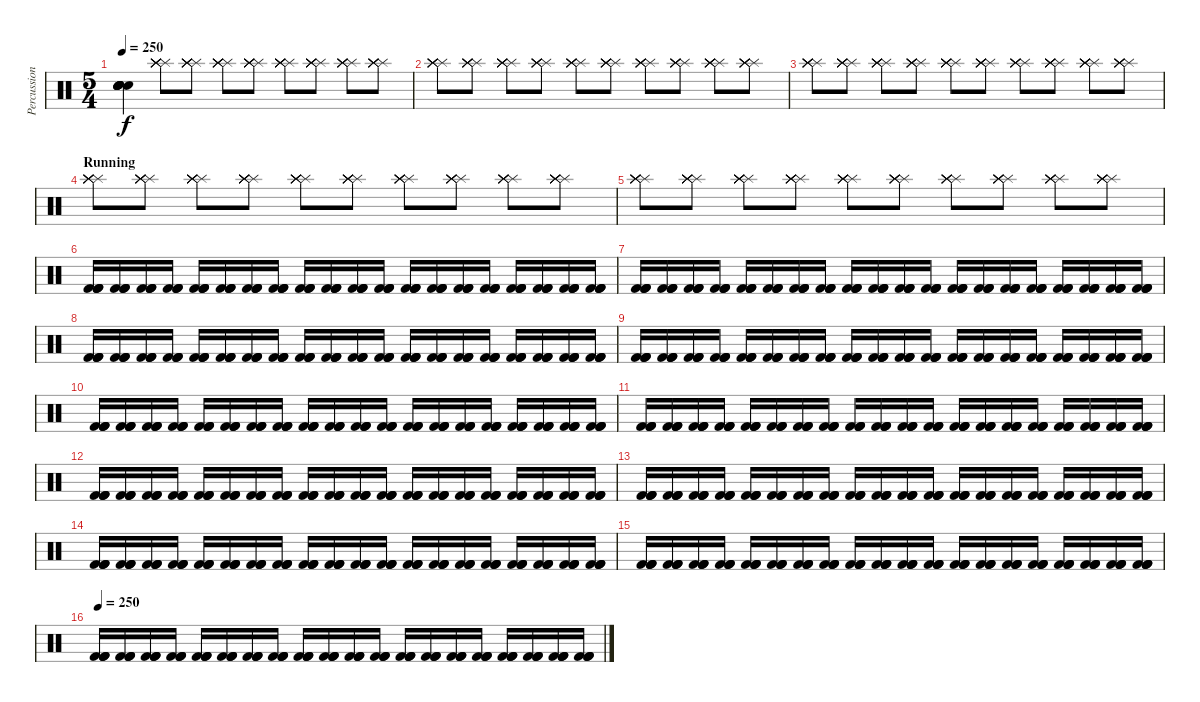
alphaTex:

\track ("Percussion" "Percussion") {instrument percussion}
\staff {score}
\articulation defaults
\ts (5 4)
\tempo 250
\clef neutral
\ks c
("Snare (hit)"{t} "Snare (hit)"{t} "Snare (hit)"{t} "Snare (hit)"{t} "Snare (hit)"{t} "Snare (hit)"{t}).4{dy f} ("Splash (hit)" "Splash (hit)" "Splash (hit)" "Splash (hit)" "Splash (hit)" "Splash (hit)").8 ("Splash (hit)" "Splash (hit)" "Splash (hit)" "Splash (hit)" "Splash (hit)" "Splash (hit)").8 ("Splash (hit)" "Splash (hit)" "Splash (hit)" "Splash (hit)" "Splash (hit)" "Splash (hit)").8 ("Splash (hit)" "Splash (hit)" "Splash (hit)" "Splash (hit)" "Splash (hit)" "Splash (hit)").8 ("Splash (hit)" "Splash (hit)" "Splash (hit)" "Splash (hit)" "Splash (hit)" "Splash (hit)").8 ("Splash (hit)" "Splash (hit)" "Splash (hit)" "Splash (hit)" "Splash (hit)" "Splash (hit)").8 ("Splash (hit)" "Splash (hit)" "Splash (hit)" "Splash (hit)" "Splash (hit)" "Splash (hit)").8 ("Splash (hit)" "Splash (hit)" "Splash (hit)" "Splash (hit)" "Splash (hit)" "Splash (hit)").8 |
("Splash (hit)" "Splash (hit)" "Splash (hit)" "Splash (hit)" "Splash (hit)" "Splash (hit)").8 ("Splash (hit)" "Splash (hit)" "Splash (hit)" "Splash (hit)" "Splash (hit)" "Splash (hit)").8 ("Splash (hit)" "Splash (hit)" "Splash (hit)" "Splash (hit)" "Splash (hit)" "Splash (hit)").8 ("Splash (hit)" "Splash (hit)" "Splash (hit)" "Splash (hit)" "Splash (hit)" "Splash (hit)").8 ("Splash (hit)" "Splash (hit)" "Splash (hit)" "Splash (hit)" "Splash (hit)" "Splash (hit)").8 ("Splash (hit)" "Splash (hit)" "Splash (hit)" "Splash (hit)" "Splash (hit)" "Splash (hit)").8 ("Splash (hit)" "Splash (hit)" "Splash (hit)" "Splash (hit)" "Splash (hit)" "Splash (hit)").8 ("Splash (hit)" "Splash (hit)" "Splash (hit)" "Splash (hit)" "Splash (hit)" "Splash (hit)").8 ("Splash (hit)" "Splash (hit)" "Splash (hit)" "Splash (hit)" "Splash (hit)" "Splash (hit)").8 ("Splash (hit)" "Splash (hit)" "Splash (hit)" "Splash (hit)" "Splash (hit)" "Splash (hit)").8 |
("Splash (hit)" "Splash (hit)" "Splash (hit)" "Splash (hit)" "Splash (hit)" "Splash (hit)").8 ("Splash (hit)" "Splash (hit)" "Splash (hit)" "Splash (hit)" "Splash (hit)" "Splash (hit)").8 ("Splash (hit)" "Splash (hit)" "Splash (hit)" "Splash (hit)" "Splash (hit)" "Splash (hit)").8 ("Splash (hit)" "Splash (hit)" "Splash (hit)" "Splash (hit)" "Splash (hit)" "Splash (hit)").8 ("Splash (hit)" "Splash (hit)" "Splash (hit)" "Splash (hit)" "Splash (hit)" "Splash (hit)").8 ("Splash (hit)" "Splash (hit)" "Splash (hit)" "Splash (hit)" "Splash (hit)" "Splash (hit)").8 ("Splash (hit)" "Splash (hit)" "Splash (hit)" "Splash (hit)" "Splash (hit)" "Splash (hit)").8 ("Splash (hit)" "Splash (hit)" "Splash (hit)" "Splash (hit)" "Splash (hit)" "Splash (hit)").8 ("Splash (hit)" "Splash (hit)" "Splash (hit)" "Splash (hit)" "Splash (hit)" "Splash (hit)").8 ("Splash (hit)" "Splash (hit)" "Splash (hit)" "Splash (hit)" "Splash (hit)" "Splash (hit)").8 |
\section ("" "Running")
("Splash (hit)" "Splash (hit)" "Splash (hit)" "Splash (hit)" "Splash (hit)" "Splash (hit)").8 ("Splash (hit)" "Splash (hit)" "Splash (hit)" "Splash (hit)" "Splash (hit)" "Splash (hit)").8 ("Splash (hit)" "Splash (hit)" "Splash (hit)" "Splash (hit)" "Splash (hit)" "Splash (hit)").8 ("Splash (hit)" "Splash (hit)" "Splash (hit)" "Splash (hit)" "Splash (hit)" "Splash (hit)").8 ("Splash (hit)" "Splash (hit)" "Splash (hit)" "Splash (hit)" "Splash (hit)" "Splash (hit)").8 ("Splash (hit)" "Splash (hit)" "Splash (hit)" "Splash (hit)" "Splash (hit)" "Splash (hit)").8 ("Splash (hit)" "Splash (hit)" "Splash (hit)" "Splash (hit)" "Splash (hit)" "Splash (hit)").8 ("Splash (hit)" "Splash (hit)" "Splash (hit)" "Splash (hit)" "Splash (hit)" "Splash (hit)").8 ("Splash (hit)" "Splash (hit)" "Splash (hit)" "Splash (hit)" "Splash (hit)" "Splash (hit)").8 ("Splash (hit)" "Splash (hit)" "Splash (hit)" "Splash (hit)" "Splash (hit)" "Splash (hit)").8 |
("Splash (hit)" "Splash (hit)" "Splash (hit)" "Splash (hit)" "Splash (hit)" "Splash (hit)").8 ("Splash (hit)" "Splash (hit)" "Splash (hit)" "Splash (hit)" "Splash (hit)" "Splash (hit)").8 ("Splash (hit)" "Splash (hit)" "Splash (hit)" "Splash (hit)" "Splash (hit)" "Splash (hit)").8 ("Splash (hit)" "Splash (hit)" "Splash (hit)" "Splash (hit)" "Splash (hit)" "Splash (hit)").8 ("Splash (hit)" "Splash (hit)" "Splash (hit)" "Splash (hit)" "Splash (hit)" "Splash (hit)").8 ("Splash (hit)" "Splash (hit)" "Splash (hit)" "Splash (hit)" "Splash (hit)" "Splash (hit)").8 ("Splash (hit)" "Splash (hit)" "Splash (hit)" "Splash (hit)" "Splash (hit)" "Splash (hit)").8 ("Splash (hit)" "Splash (hit)" "Splash (hit)" "Splash (hit)" "Splash (hit)" "Splash (hit)").8 ("Splash (hit)" "Splash (hit)" "Splash (hit)" "Splash (hit)" "Splash (hit)" "Splash (hit)").8 ("Splash (hit)" "Splash (hit)" "Splash (hit)" "Splash (hit)" "Splash (hit)" "Splash (hit)").8 |
("Kick (hit) 2" "Kick (hit) 2" "Kick (hit) 2" "Kick (hit) 2").16 ("Kick (hit) 2" "Kick (hit) 2" "Kick (hit) 2" "Kick (hit) 2").16 ("Kick (hit) 2" "Kick (hit) 2" "Kick (hit) 2" "Kick (hit) 2").16 ("Kick (hit) 2" "Kick (hit) 2" "Kick (hit) 2" "Kick (hit) 2").16 ("Kick (hit) 2" "Kick (hit) 2" "Kick (hit) 2" "Kick (hit) 2").16 ("Kick (hit) 2" "Kick (hit) 2" "Kick (hit) 2" "Kick (hit) 2").16 ("Kick (hit) 2" "Kick (hit) 2" "Kick (hit) 2" "Kick (hit) 2").16 ("Kick (hit) 2" "Kick (hit) 2" "Kick (hit) 2" "Kick (hit) 2").16 ("Kick (hit) 2" "Kick (hit) 2" "Kick (hit) 2" "Kick (hit) 2").16 ("Kick (hit) 2" "Kick (hit) 2" "Kick (hit) 2" "Kick (hit) 2").16 ("Kick (hit) 2" "Kick (hit) 2" "Kick (hit) 2" "Kick (hit) 2").16 ("Kick (hit) 2" "Kick (hit) 2" "Kick (hit) 2" "Kick (hit) 2").16 ("Kick (hit) 2" "Kick (hit) 2" "Kick (hit) 2" "Kick (hit) 2").16 ("Kick (hit) 2" "Kick (hit) 2" "Kick (hit) 2" "Kick (hit) 2").16 ("Kick (hit) 2" "Kick (hit) 2" "Kick (hit) 2" "Kick (hit) 2").16 ("Kick (hit) 2" "Kick (hit) 2" "Kick (hit) 2" "Kick (hit) 2").16 ("Kick (hit) 2" "Kick (hit) 2" "Kick (hit) 2" "Kick (hit) 2").16 ("Kick (hit) 2" "Kick (hit) 2" "Kick (hit) 2" "Kick (hit) 2").16 ("Kick (hit) 2" "Kick (hit) 2" "Kick (hit) 2" "Kick (hit) 2").16 ("Kick (hit) 2" "Kick (hit) 2" "Kick (hit) 2" "Kick (hit) 2").16 |
("Kick (hit) 2" "Kick (hit) 2" "Kick (hit) 2" "Kick (hit) 2").16 ("Kick (hit) 2" "Kick (hit) 2" "Kick (hit) 2" "Kick (hit) 2").16 ("Kick (hit) 2" "Kick (hit) 2" "Kick (hit) 2" "Kick (hit) 2").16 ("Kick (hit) 2" "Kick (hit) 2" "Kick (hit) 2" "Kick (hit) 2").16 ("Kick (hit) 2" "Kick (hit) 2" "Kick (hit) 2" "Kick (hit) 2").16 ("Kick (hit) 2" "Kick (hit) 2" "Kick (hit) 2" "Kick (hit) 2").16 ("Kick (hit) 2" "Kick (hit) 2" "Kick (hit) 2" "Kick (hit) 2").16 ("Kick (hit) 2" "Kick (hit) 2" "Kick (hit) 2" "Kick (hit) 2").16 ("Kick (hit) 2" "Kick (hit) 2" "Kick (hit) 2" "Kick (hit) 2").16 ("Kick (hit) 2" "Kick (hit) 2" "Kick (hit) 2" "Kick (hit) 2").16 ("Kick (hit) 2" "Kick (hit) 2" "Kick (hit) 2" "Kick (hit) 2").16 ("Kick (hit) 2" "Kick (hit) 2" "Kick (hit) 2" "Kick (hit) 2").16 ("Kick (hit) 2" "Kick (hit) 2" "Kick (hit) 2" "Kick (hit) 2").16 ("Kick (hit) 2" "Kick (hit) 2" "Kick (hit) 2" "Kick (hit) 2").16 ("Kick (hit) 2" "Kick (hit) 2" "Kick (hit) 2" "Kick (hit) 2").16 ("Kick (hit) 2" "Kick (hit) 2" "Kick (hit) 2" "Kick (hit) 2").16 ("Kick (hit) 2" "Kick (hit) 2" "Kick (hit) 2" "Kick (hit) 2").16 ("Kick (hit) 2" "Kick (hit) 2" "Kick (hit) 2" "Kick (hit) 2").16 ("Kick (hit) 2" "Kick (hit) 2" "Kick (hit) 2" "Kick (hit) 2").16 ("Kick (hit) 2" "Kick (hit) 2" "Kick (hit) 2" "Kick (hit) 2").16 |
("Kick (hit) 2" "Kick (hit) 2" "Kick (hit) 2" "Kick (hit) 2").16 ("Kick (hit) 2" "Kick (hit) 2" "Kick (hit) 2" "Kick (hit) 2").16 ("Kick (hit) 2" "Kick (hit) 2" "Kick (hit) 2" "Kick (hit) 2").16 ("Kick (hit) 2" "Kick (hit) 2" "Kick (hit) 2" "Kick (hit) 2").16 ("Kick (hit) 2" "Kick (hit) 2" "Kick (hit) 2" "Kick (hit) 2").16 ("Kick (hit) 2" "Kick (hit) 2" "Kick (hit) 2" "Kick (hit) 2").16 ("Kick (hit) 2" "Kick (hit) 2" "Kick (hit) 2" "Kick (hit) 2").16 ("Kick (hit) 2" "Kick (hit) 2" "Kick (hit) 2" "Kick (hit) 2").16 ("Kick (hit) 2" "Kick (hit) 2" "Kick (hit) 2" "Kick (hit) 2").16 ("Kick (hit) 2" "Kick (hit) 2" "Kick (hit) 2" "Kick (hit) 2").16 ("Kick (hit) 2" "Kick (hit) 2" "Kick (hit) 2" "Kick (hit) 2").16 ("Kick (hit) 2" "Kick (hit) 2" "Kick (hit) 2" "Kick (hit) 2").16 ("Kick (hit) 2" "Kick (hit) 2" "Kick (hit) 2" "Kick (hit) 2").16 ("Kick (hit) 2" "Kick (hit) 2" "Kick (hit) 2" "Kick (hit) 2").16 ("Kick (hit) 2" "Kick (hit) 2" "Kick (hit) 2" "Kick (hit) 2").16 ("Kick (hit) 2" "Kick (hit) 2" "Kick (hit) 2" "Kick (hit) 2").16 ("Kick (hit) 2" "Kick (hit) 2" "Kick (hit) 2" "Kick (hit) 2").16 ("Kick (hit) 2" "Kick (hit) 2" "Kick (hit) 2" "Kick (hit) 2").16 ("Kick (hit) 2" "Kick (hit) 2" "Kick (hit) 2" "Kick (hit) 2").16 ("Kick (hit) 2" "Kick (hit) 2" "Kick (hit) 2" "Kick (hit) 2").16 |
("Kick (hit) 2" "Kick (hit) 2" "Kick (hit) 2" "Kick (hit) 2").16 ("Kick (hit) 2" "Kick (hit) 2" "Kick (hit) 2" "Kick (hit) 2").16 ("Kick (hit) 2" "Kick (hit) 2" "Kick (hit) 2" "Kick (hit) 2").16 ("Kick (hit) 2" "Kick (hit) 2" "Kick (hit) 2" "Kick (hit) 2").16 ("Kick (hit) 2" "Kick (hit) 2" "Kick (hit) 2" "Kick (hit) 2").16 ("Kick (hit) 2" "Kick (hit) 2" "Kick (hit) 2" "Kick (hit) 2").16 ("Kick (hit) 2" "Kick (hit) 2" "Kick (hit) 2" "Kick (hit) 2").16 ("Kick (hit) 2" "Kick (hit) 2" "Kick (hit) 2" "Kick (hit) 2").16 ("Kick (hit) 2" "Kick (hit) 2" "Kick (hit) 2" "Kick (hit) 2").16 ("Kick (hit) 2" "Kick (hit) 2" "Kick (hit) 2" "Kick (hit) 2").16 ("Kick (hit) 2" "Kick (hit) 2" "Kick (hit) 2" "Kick (hit) 2").16 ("Kick (hit) 2" "Kick (hit) 2" "Kick (hit) 2" "Kick (hit) 2").16 ("Kick (hit) 2" "Kick (hit) 2" "Kick (hit) 2" "Kick (hit) 2").16 ("Kick (hit) 2" "Kick (hit) 2" "Kick (hit) 2" "Kick (hit) 2").16 ("Kick (hit) 2" "Kick (hit) 2" "Kick (hit) 2" "Kick (hit) 2").16 ("Kick (hit) 2" "Kick (hit) 2" "Kick (hit) 2" "Kick (hit) 2").16 ("Kick (hit) 2" "Kick (hit) 2" "Kick (hit) 2" "Kick (hit) 2").16 ("Kick (hit) 2" "Kick (hit) 2" "Kick (hit) 2" "Kick (hit) 2").16 ("Kick (hit) 2" "Kick (hit) 2" "Kick (hit) 2" "Kick (hit) 2").16 ("Kick (hit) 2" "Kick (hit) 2" "Kick (hit) 2" "Kick (hit) 2").16 |
("Kick (hit) 2" "Kick (hit) 2" "Kick (hit) 2" "Kick (hit) 2").16 ("Kick (hit) 2" "Kick (hit) 2" "Kick (hit) 2" "Kick (hit) 2").16 ("Kick (hit) 2" "Kick (hit) 2" "Kick (hit) 2" "Kick (hit) 2").16 ("Kick (hit) 2" "Kick (hit) 2" "Kick (hit) 2" "Kick (hit) 2").16 ("Kick (hit) 2" "Kick (hit) 2" "Kick (hit) 2" "Kick (hit) 2").16 ("Kick (hit) 2" "Kick (hit) 2" "Kick (hit) 2" "Kick (hit) 2").16 ("Kick (hit) 2" "Kick (hit) 2" "Kick (hit) 2" "Kick (hit) 2").16 ("Kick (hit) 2" "Kick (hit) 2" "Kick (hit) 2" "Kick (hit) 2").16 ("Kick (hit) 2" "Kick (hit) 2" "Kick (hit) 2" "Kick (hit) 2").16 ("Kick (hit) 2" "Kick (hit) 2" "Kick (hit) 2" "Kick (hit) 2").16 ("Kick (hit) 2" "Kick (hit) 2" "Kick (hit) 2" "Kick (hit) 2").16 ("Kick (hit) 2" "Kick (hit) 2" "Kick (hit) 2" "Kick (hit) 2").16 ("Kick (hit) 2" "Kick (hit) 2" "Kick (hit) 2" "Kick (hit) 2").16 ("Kick (hit) 2" "Kick (hit) 2" "Kick (hit) 2" "Kick (hit) 2").16 ("Kick (hit) 2" "Kick (hit) 2" "Kick (hit) 2" "Kick (hit) 2").16 ("Kick (hit) 2" "Kick (hit) 2" "Kick (hit) 2" "Kick (hit) 2").16 ("Kick (hit) 2" "Kick (hit) 2" "Kick (hit) 2" "Kick (hit) 2").16 ("Kick (hit) 2" "Kick (hit) 2" "Kick (hit) 2" "Kick (hit) 2").16 ("Kick (hit) 2" "Kick (hit) 2" "Kick (hit) 2" "Kick (hit) 2").16 ("Kick (hit) 2" "Kick (hit) 2" "Kick (hit) 2" "Kick (hit) 2").16 |
("Kick (hit) 2" "Kick (hit) 2" "Kick (hit) 2" "Kick (hit) 2").16 ("Kick (hit) 2" "Kick (hit) 2" "Kick (hit) 2" "Kick (hit) 2").16 ("Kick (hit) 2" "Kick (hit) 2" "Kick (hit) 2" "Kick (hit) 2").16 ("Kick (hit) 2" "Kick (hit) 2" "Kick (hit) 2" "Kick (hit) 2").16 ("Kick (hit) 2" "Kick (hit) 2" "Kick (hit) 2" "Kick (hit) 2").16 ("Kick (hit) 2" "Kick (hit) 2" "Kick (hit) 2" "Kick (hit) 2").16 ("Kick (hit) 2" "Kick (hit) 2" "Kick (hit) 2" "Kick (hit) 2").16 ("Kick (hit) 2" "Kick (hit) 2" "Kick (hit) 2" "Kick (hit) 2").16 ("Kick (hit) 2" "Kick (hit) 2" "Kick (hit) 2" "Kick (hit) 2").16 ("Kick (hit) 2" "Kick (hit) 2" "Kick (hit) 2" "Kick (hit) 2").16 ("Kick (hit) 2" "Kick (hit) 2" "Kick (hit) 2" "Kick (hit) 2").16 ("Kick (hit) 2" "Kick (hit) 2" "Kick (hit) 2" "Kick (hit) 2").16 ("Kick (hit) 2" "Kick (hit) 2" "Kick (hit) 2" "Kick (hit) 2").16 ("Kick (hit) 2" "Kick (hit) 2" "Kick (hit) 2" "Kick (hit) 2").16 ("Kick (hit) 2" "Kick (hit) 2" "Kick (hit) 2" "Kick (hit) 2").16 ("Kick (hit) 2" "Kick (hit) 2" "Kick (hit) 2" "Kick (hit) 2").16 ("Kick (hit) 2" "Kick (hit) 2" "Kick (hit) 2" "Kick (hit) 2").16 ("Kick (hit) 2" "Kick (hit) 2" "Kick (hit) 2" "Kick (hit) 2").16 ("Kick (hit) 2" "Kick (hit) 2" "Kick (hit) 2" "Kick (hit) 2").16 ("Kick (hit) 2" "Kick (hit) 2" "Kick (hit) 2" "Kick (hit) 2").16 |
("Kick (hit) 2" "Kick (hit) 2" "Kick (hit) 2" "Kick (hit) 2").16 ("Kick (hit) 2" "Kick (hit) 2" "Kick (hit) 2" "Kick (hit) 2").16 ("Kick (hit) 2" "Kick (hit) 2" "Kick (hit) 2" "Kick (hit) 2").16 ("Kick (hit) 2" "Kick (hit) 2" "Kick (hit) 2" "Kick (hit) 2").16 ("Kick (hit) 2" "Kick (hit) 2" "Kick (hit) 2" "Kick (hit) 2").16 ("Kick (hit) 2" "Kick (hit) 2" "Kick (hit) 2" "Kick (hit) 2").16 ("Kick (hit) 2" "Kick (hit) 2" "Kick (hit) 2" "Kick (hit) 2").16 ("Kick (hit) 2" "Kick (hit) 2" "Kick (hit) 2" "Kick (hit) 2").16 ("Kick (hit) 2" "Kick (hit) 2" "Kick (hit) 2" "Kick (hit) 2").16 ("Kick (hit) 2" "Kick (hit) 2" "Kick (hit) 2" "Kick (hit) 2").16 ("Kick (hit) 2" "Kick (hit) 2" "Kick (hit) 2" "Kick (hit) 2").16 ("Kick (hit) 2" "Kick (hit) 2" "Kick (hit) 2" "Kick (hit) 2").16 ("Kick (hit) 2" "Kick (hit) 2" "Kick (hit) 2" "Kick (hit) 2").16 ("Kick (hit) 2" "Kick (hit) 2" "Kick (hit) 2" "Kick (hit) 2").16 ("Kick (hit) 2" "Kick (hit) 2" "Kick (hit) 2" "Kick (hit) 2").16 ("Kick (hit) 2" "Kick (hit) 2" "Kick (hit) 2" "Kick (hit) 2").16 ("Kick (hit) 2" "Kick (hit) 2" "Kick (hit) 2" "Kick (hit) 2").16 ("Kick (hit) 2" "Kick (hit) 2" "Kick (hit) 2" "Kick (hit) 2").16 ("Kick (hit) 2" "Kick (hit) 2" "Kick (hit) 2" "Kick (hit) 2").16 ("Kick (hit) 2" "Kick (hit) 2" "Kick (hit) 2" "Kick (hit) 2").16 |
("Kick (hit) 2" "Kick (hit) 2" "Kick (hit) 2" "Kick (hit) 2").16 ("Kick (hit) 2" "Kick (hit) 2" "Kick (hit) 2" "Kick (hit) 2").16 ("Kick (hit) 2" "Kick (hit) 2" "Kick (hit) 2" "Kick (hit) 2").16 ("Kick (hit) 2" "Kick (hit) 2" "Kick (hit) 2" "Kick (hit) 2").16 ("Kick (hit) 2" "Kick (hit) 2" "Kick (hit) 2" "Kick (hit) 2").16 ("Kick (hit) 2" "Kick (hit) 2" "Kick (hit) 2" "Kick (hit) 2").16 ("Kick (hit) 2" "Kick (hit) 2" "Kick (hit) 2" "Kick (hit) 2").16 ("Kick (hit) 2" "Kick (hit) 2" "Kick (hit) 2" "Kick (hit) 2").16 ("Kick (hit) 2" "Kick (hit) 2" "Kick (hit) 2" "Kick (hit) 2").16 ("Kick (hit) 2" "Kick (hit) 2" "Kick (hit) 2" "Kick (hit) 2").16 ("Kick (hit) 2" "Kick (hit) 2" "Kick (hit) 2" "Kick (hit) 2").16 ("Kick (hit) 2" "Kick (hit) 2" "Kick (hit) 2" "Kick (hit) 2").16 ("Kick (hit) 2" "Kick (hit) 2" "Kick (hit) 2" "Kick (hit) 2").16 ("Kick (hit) 2" "Kick (hit) 2" "Kick (hit) 2" "Kick (hit) 2").16 ("Kick (hit) 2" "Kick (hit) 2" "Kick (hit) 2" "Kick (hit) 2").16 ("Kick (hit) 2" "Kick (hit) 2" "Kick (hit) 2" "Kick (hit) 2").16 ("Kick (hit) 2" "Kick (hit) 2" "Kick (hit) 2" "Kick (hit) 2").16 ("Kick (hit) 2" "Kick (hit) 2" "Kick (hit) 2" "Kick (hit) 2").16 ("Kick (hit) 2" "Kick (hit) 2" "Kick (hit) 2" "Kick (hit) 2").16 ("Kick (hit) 2" "Kick (hit) 2" "Kick (hit) 2" "Kick (hit) 2").16 |
("Kick (hit) 2" "Kick (hit) 2" "Kick (hit) 2" "Kick (hit) 2").16 ("Kick (hit) 2" "Kick (hit) 2" "Kick (hit) 2" "Kick (hit) 2").16 ("Kick (hit) 2" "Kick (hit) 2" "Kick (hit) 2" "Kick (hit) 2").16 ("Kick (hit) 2" "Kick (hit) 2" "Kick (hit) 2" "Kick (hit) 2").16 ("Kick (hit) 2" "Kick (hit) 2" "Kick (hit) 2" "Kick (hit) 2").16 ("Kick (hit) 2" "Kick (hit) 2" "Kick (hit) 2" "Kick (hit) 2").16 ("Kick (hit) 2" "Kick (hit) 2" "Kick (hit) 2" "Kick (hit) 2").16 ("Kick (hit) 2" "Kick (hit) 2" "Kick (hit) 2" "Kick (hit) 2").16 ("Kick (hit) 2" "Kick (hit) 2" "Kick (hit) 2" "Kick (hit) 2").16 ("Kick (hit) 2" "Kick (hit) 2" "Kick (hit) 2" "Kick (hit) 2").16 ("Kick (hit) 2" "Kick (hit) 2" "Kick (hit) 2" "Kick (hit) 2").16 ("Kick (hit) 2" "Kick (hit) 2" "Kick (hit) 2" "Kick (hit) 2").16 ("Kick (hit) 2" "Kick (hit) 2" "Kick (hit) 2" "Kick (hit) 2").16 ("Kick (hit) 2" "Kick (hit) 2" "Kick (hit) 2" "Kick (hit) 2").16 ("Kick (hit) 2" "Kick (hit) 2" "Kick (hit) 2" "Kick (hit) 2").16 ("Kick (hit) 2" "Kick (hit) 2" "Kick (hit) 2" "Kick (hit) 2").16 ("Kick (hit) 2" "Kick (hit) 2" "Kick (hit) 2" "Kick (hit) 2").16 ("Kick (hit) 2" "Kick (hit) 2" "Kick (hit) 2" "Kick (hit) 2").16 ("Kick (hit) 2" "Kick (hit) 2" "Kick (hit) 2" "Kick (hit) 2").16 ("Kick (hit) 2" "Kick (hit) 2" "Kick (hit) 2" "Kick (hit) 2").16 |
("Kick (hit) 2" "Kick (hit) 2" "Kick (hit) 2" "Kick (hit) 2").16 ("Kick (hit) 2" "Kick (hit) 2" "Kick (hit) 2" "Kick (hit) 2").16 ("Kick (hit) 2" "Kick (hit) 2" "Kick (hit) 2" "Kick (hit) 2").16 ("Kick (hit) 2" "Kick (hit) 2" "Kick (hit) 2" "Kick (hit) 2").16 ("Kick (hit) 2" "Kick (hit) 2" "Kick (hit) 2" "Kick (hit) 2").16 ("Kick (hit) 2" "Kick (hit) 2" "Kick (hit) 2" "Kick (hit) 2").16 ("Kick (hit) 2" "Kick (hit) 2" "Kick (hit) 2" "Kick (hit) 2").16 ("Kick (hit) 2" "Kick (hit) 2" "Kick (hit) 2" "Kick (hit) 2").16 ("Kick (hit) 2" "Kick (hit) 2" "Kick (hit) 2" "Kick (hit) 2").16 ("Kick (hit) 2" "Kick (hit) 2" "Kick (hit) 2" "Kick (hit) 2").16 ("Kick (hit) 2" "Kick (hit) 2" "Kick (hit) 2" "Kick (hit) 2").16 ("Kick (hit) 2" "Kick (hit) 2" "Kick (hit) 2" "Kick (hit) 2").16 ("Kick (hit) 2" "Kick (hit) 2" "Kick (hit) 2" "Kick (hit) 2").16 ("Kick (hit) 2" "Kick (hit) 2" "Kick (hit) 2" "Kick (hit) 2").16 ("Kick (hit) 2" "Kick (hit) 2" "Kick (hit) 2" "Kick (hit) 2").16 ("Kick (hit) 2" "Kick (hit) 2" "Kick (hit) 2" "Kick (hit) 2").16 ("Kick (hit) 2" "Kick (hit) 2" "Kick (hit) 2" "Kick (hit) 2").16 ("Kick (hit) 2" "Kick (hit) 2" "Kick (hit) 2" "Kick (hit) 2").16 ("Kick (hit) 2" "Kick (hit) 2" "Kick (hit) 2" "Kick (hit) 2").16 ("Kick (hit) 2" "Kick (hit) 2" "Kick (hit) 2" "Kick (hit) 2").16 |
\tempo 250
("Kick (hit) 2" "Kick (hit) 2" "Kick (hit) 2" "Kick (hit) 2").16 ("Kick (hit) 2" "Kick (hit) 2" "Kick (hit) 2" "Kick (hit) 2").16 ("Kick (hit) 2" "Kick (hit) 2" "Kick (hit) 2" "Kick (hit) 2").16 ("Kick (hit) 2" "Kick (hit) 2" "Kick (hit) 2" "Kick (hit) 2").16 ("Kick (hit) 2" "Kick (hit) 2" "Kick (hit) 2" "Kick (hit) 2").16 ("Kick (hit) 2" "Kick (hit) 2" "Kick (hit) 2" "Kick (hit) 2").16 ("Kick (hit) 2" "Kick (hit) 2" "Kick (hit) 2" "Kick (hit) 2").16 ("Kick (hit) 2" "Kick (hit) 2" "Kick (hit) 2" "Kick (hit) 2").16 ("Kick (hit) 2" "Kick (hit) 2" "Kick (hit) 2" "Kick (hit) 2").16 ("Kick (hit) 2" "Kick (hit) 2" "Kick (hit) 2" "Kick (hit) 2").16 ("Kick (hit) 2" "Kick (hit) 2" "Kick (hit) 2" "Kick (hit) 2").16 ("Kick (hit) 2" "Kick (hit) 2" "Kick (hit) 2" "Kick (hit) 2").16 ("Kick (hit) 2" "Kick (hit) 2" "Kick (hit) 2" "Kick (hit) 2").16 ("Kick (hit) 2" "Kick (hit) 2" "Kick (hit) 2" "Kick (hit) 2").16 ("Kick (hit) 2" "Kick (hit) 2" "Kick (hit) 2" "Kick (hit) 2").16 ("Kick (hit) 2" "Kick (hit) 2" "Kick (hit) 2" "Kick (hit) 2").16 ("Kick (hit) 2" "Kick (hit) 2" "Kick (hit) 2" "Kick (hit) 2").16 ("Kick (hit) 2" "Kick (hit) 2" "Kick (hit) 2" "Kick (hit) 2").16 ("Kick (hit) 2" "Kick (hit) 2" "Kick (hit) 2" "Kick (hit) 2").16 ("Kick (hit) 2" "Kick (hit) 2" "Kick (hit) 2" "Kick (hit) 2").16
